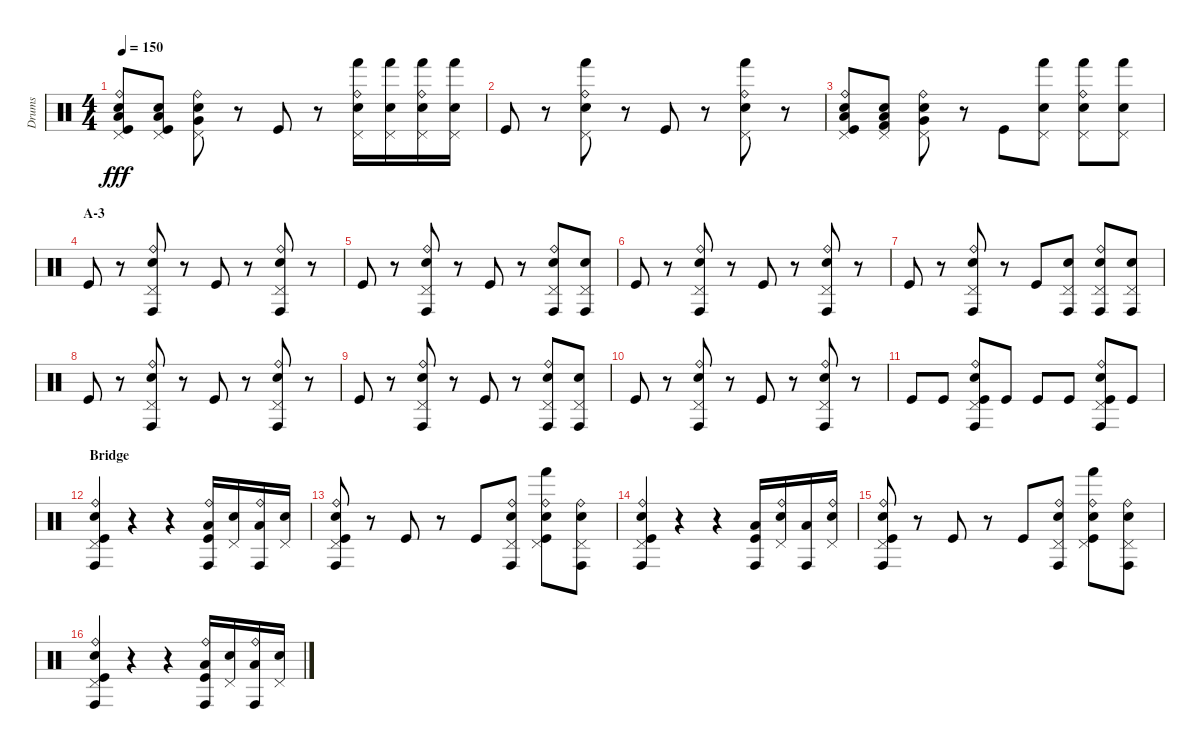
\track ("Drums" "Drums") {instrument percussion}
\staff {score}
\articulation defaults
\ts (4 4)
\tempo 150
\clef neutral
\ks c
("Ride (bell)" "Pedal Hi-Hat (hit)" "Low Tom (hit)" "Electric Snare (hit)" "Kick (hit)").8{dy fff} ("Pedal Hi-Hat (hit)" "Low Tom (hit)" "Electric Snare (hit)" "Kick (hit)").8 ("Ride (bell)" "Pedal Hi-Hat (hit)" "Very Low Tom (hit)" "Electric Snare (hit)").8 r.8 "Kick (hit)".8 r.8 ("Ride (bell)" "Pedal Hi-Hat (hit)" "Hand (hit)" "Electric Snare (hit)").16 ("Pedal Hi-Hat (hit)" "Hand (hit)" "Electric Snare (hit)").16 ("Ride (bell)" "Pedal Hi-Hat (hit)" "Hand (hit)" "Electric Snare (hit)").16 ("Pedal Hi-Hat (hit)" "Hand (hit)" "Electric Snare (hit)").16 |
"Kick (hit)".8 r.8 ("Ride (bell)" "Pedal Hi-Hat (hit)" "Hand (hit)" "Electric Snare (hit)").8 r.8 "Kick (hit)".8 r.8 ("Ride (bell)" "Pedal Hi-Hat (hit)" "Hand (hit)" "Electric Snare (hit)").8 r.8 |
("Ride (bell)" "Pedal Hi-Hat (hit)" "Low Tom (hit)" "Electric Snare (hit)" "Kick (hit)").8 ("Pedal Hi-Hat (hit)" "Low Tom (hit)" "Electric Snare (hit)" "Kick (hit) 2").8 ("Ride (bell)" "Pedal Hi-Hat (hit)" "Very Low Tom (hit)" "Electric Snare (hit)").8 r.8 "Kick (hit)".8 ("Pedal Hi-Hat (hit)" "Hand (hit)" "Electric Snare (hit)").8 ("Ride (bell)" "Pedal Hi-Hat (hit)" "Hand (hit)" "Electric Snare (hit)").8 ("Pedal Hi-Hat (hit)" "Hand (hit)" "Electric Snare (hit)").8 |
\section ("" "A-3")
"Kick (hit)".8 r.8 ("Ride (bell)" "Pedal Hi-Hat (hit)" "Conga high (hit)" "Electric Snare (hit)").8 r.8 "Kick (hit)".8 r.8 ("Ride (bell)" "Pedal Hi-Hat (hit)" "Conga high (hit)" "Electric Snare (hit)").8 r.8 |
"Kick (hit)".8 r.8 ("Ride (bell)" "Pedal Hi-Hat (hit)" "Conga high (hit)" "Electric Snare (hit)").8 r.8 "Kick (hit)".8 r.8 ("Ride (bell)" "Pedal Hi-Hat (hit)" "Conga high (hit)" "Electric Snare (hit)").8 ("Pedal Hi-Hat (hit)" "Conga high (hit)" "Electric Snare (hit)").8 |
"Kick (hit)".8 r.8 ("Ride (bell)" "Pedal Hi-Hat (hit)" "Conga high (hit)" "Electric Snare (hit)").8 r.8 "Kick (hit)".8 r.8 ("Ride (bell)" "Pedal Hi-Hat (hit)" "Conga high (hit)" "Electric Snare (hit)").8 r.8 |
"Kick (hit)".8 r.8 ("Ride (bell)" "Pedal Hi-Hat (hit)" "Conga high (hit)" "Electric Snare (hit)").8 r.8 "Kick (hit)".8 ("Pedal Hi-Hat (hit)" "Conga high (hit)" "Electric Snare (hit)").8 ("Ride (bell)" "Pedal Hi-Hat (hit)" "Conga high (hit)" "Electric Snare (hit)").8 ("Pedal Hi-Hat (hit)" "Conga high (hit)" "Electric Snare (hit)").8 |
"Kick (hit)".8 r.8 ("Ride (bell)" "Pedal Hi-Hat (hit)" "Conga high (hit)" "Electric Snare (hit)").8 r.8 "Kick (hit)".8 r.8 ("Ride (bell)" "Pedal Hi-Hat (hit)" "Conga high (hit)" "Electric Snare (hit)").8 r.8 |
"Kick (hit)".8 r.8 ("Ride (bell)" "Pedal Hi-Hat (hit)" "Conga high (hit)" "Electric Snare (hit)").8 r.8 "Kick (hit)".8 r.8 ("Ride (bell)" "Pedal Hi-Hat (hit)" "Conga high (hit)" "Electric Snare (hit)").8 ("Pedal Hi-Hat (hit)" "Conga high (hit)" "Electric Snare (hit)").8 |
"Kick (hit)".8 r.8 ("Ride (bell)" "Pedal Hi-Hat (hit)" "Conga high (hit)" "Electric Snare (hit)").8 r.8 "Kick (hit)".8 r.8 ("Ride (bell)" "Pedal Hi-Hat (hit)" "Conga high (hit)" "Electric Snare (hit)").8 r.8 |
"Kick (hit)".8 "Kick (hit)".8 ("Ride (bell)" "Pedal Hi-Hat (hit)" "Conga high (hit)" "Electric Snare (hit)" "Kick (hit)").8 "Kick (hit)".8 "Kick (hit)".8 "Kick (hit)".8 ("Ride (bell)" "Pedal Hi-Hat (hit)" "Conga high (hit)" "Electric Snare (hit)" "Kick (hit)").8 "Kick (hit)".8 |
\section ("" "Bridge")
("Ride (bell)" "Pedal Hi-Hat (hit)" "Conga high (hit)" "Electric Snare (hit)" "Kick (hit)").4 r.4 r.4 ("Ride (bell)" "Conga high (hit)" "Low Floor Tom (hit)" "Kick (hit)").16 ("Pedal Hi-Hat (hit)" "Electric Snare (hit)").16 ("Ride (bell)" "Conga high (hit)" "Low Floor Tom (hit)").16 ("Pedal Hi-Hat (hit)" "Electric Snare (hit)").16 |
("Ride (bell)" "Pedal Hi-Hat (hit)" "Conga high (hit)" "Electric Snare (hit)" "Kick (hit)").8 r.8 "Kick (hit)".8 r.8 "Kick (hit)".8 ("Ride (bell)" "Pedal Hi-Hat (hit)" "Conga high (hit)" "Electric Snare (hit)").8 ("Ride (bell)" "Pedal Hi-Hat (hit)" "Hand (hit)" "Electric Snare (hit)" "Kick (hit)").8 ("Ride (bell)" "Pedal Hi-Hat (hit)" "Conga high (hit)" "Electric Snare (hit)").8 |
("Ride (bell)" "Pedal Hi-Hat (hit)" "Conga high (hit)" "Electric Snare (hit)" "Kick (hit)").4 r.4 r.4 ("Conga high (hit)" "Low Floor Tom (hit)" "Kick (hit)").16 ("Ride (bell)" "Pedal Hi-Hat (hit)" "Electric Snare (hit)").16 ("Conga high (hit)" "Low Floor Tom (hit)").16 ("Ride (bell)" "Pedal Hi-Hat (hit)" "Electric Snare (hit)").16 |
("Ride (bell)" "Pedal Hi-Hat (hit)" "Conga high (hit)" "Electric Snare (hit)" "Kick (hit)").8 r.8 "Kick (hit)".8 r.8 "Kick (hit)".8 ("Ride (bell)" "Pedal Hi-Hat (hit)" "Conga high (hit)" "Electric Snare (hit)").8 ("Ride (bell)" "Pedal Hi-Hat (hit)" "Hand (hit)" "Electric Snare (hit)" "Kick (hit)").8 ("Ride (bell)" "Pedal Hi-Hat (hit)" "Conga high (hit)" "Electric Snare (hit)").8 |
("Ride (bell)" "Pedal Hi-Hat (hit)" "Conga high (hit)" "Electric Snare (hit)" "Kick (hit)").4 r.4 r.4 ("Ride (bell)" "Conga high (hit)" "Low Floor Tom (hit)" "Kick (hit)").16 ("Pedal Hi-Hat (hit)" "Electric Snare (hit)").16 ("Ride (bell)" "Conga high (hit)" "Low Floor Tom (hit)").16 ("Pedal Hi-Hat (hit)" "Electric Snare (hit)").16
